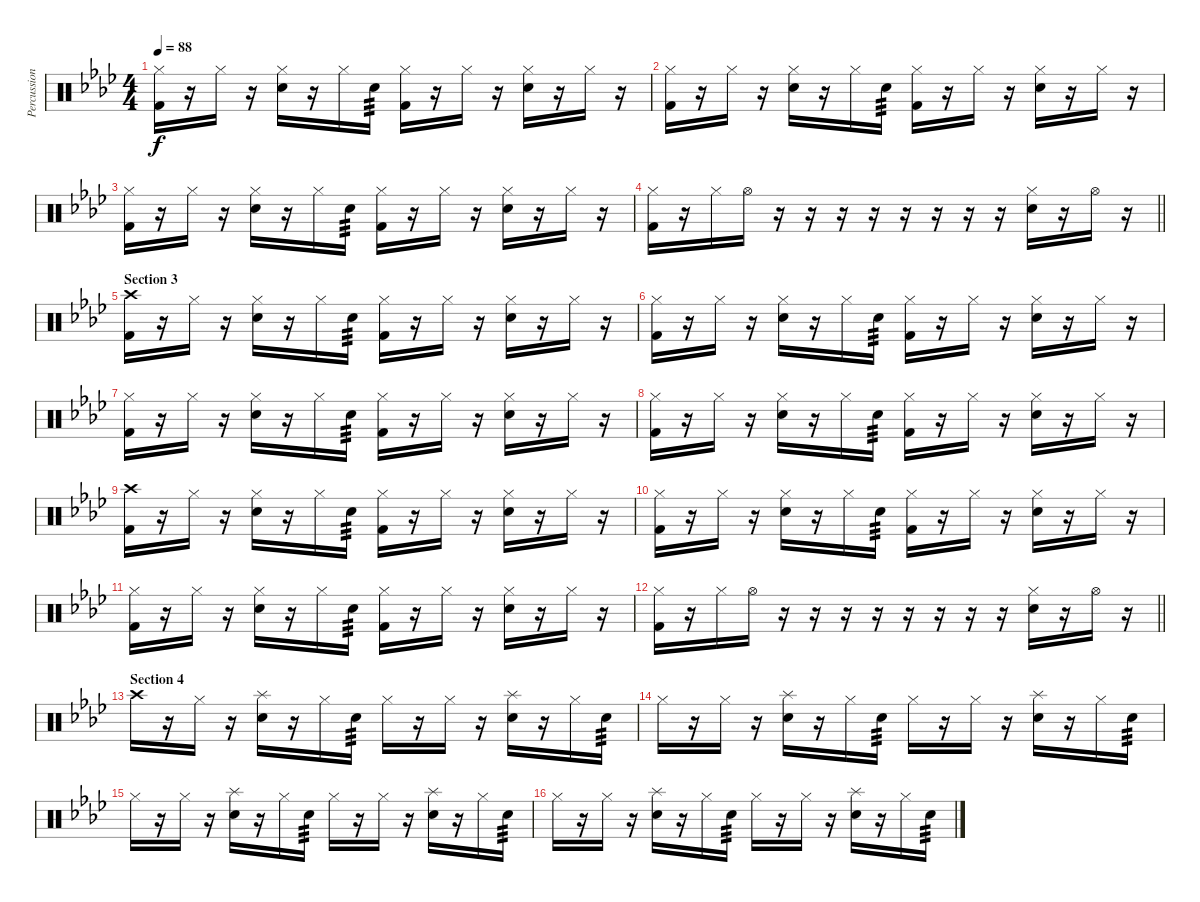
\track ("Percussion" "Percussion") {instrument percussion}
\staff {score}
\articulation defaults
\ts (4 4)
\tempo 88
\clef neutral
\ks fminor
("Hi-Hat (closed)" "Kick (hit) 2").16{dy f} r.16 "Hi-Hat (closed)".16 r.16 ("Hi-Hat (closed)" "Snare (hit) 2").16 r.16 "Hi-Hat (closed)".16 "Snare (hit) 2".16{tp 3} ("Hi-Hat (closed)" "Kick (hit) 2").16 r.16 "Hi-Hat (closed)".16 r.16 ("Hi-Hat (closed)" "Snare (hit) 2").16 r.16 "Hi-Hat (closed)".16 r.16 |
("Hi-Hat (closed)" "Kick (hit) 2").16 r.16 "Hi-Hat (closed)".16 r.16 ("Hi-Hat (closed)" "Snare (hit) 2").16 r.16 "Hi-Hat (closed)".16 "Snare (hit) 2".16{tp 3} ("Hi-Hat (closed)" "Kick (hit) 2").16 r.16 "Hi-Hat (closed)".16 r.16 ("Hi-Hat (closed)" "Snare (hit) 2").16 r.16 "Hi-Hat (closed)".16 r.16 |
("Hi-Hat (closed)" "Kick (hit) 2").16 r.16 "Hi-Hat (closed)".16 r.16 ("Hi-Hat (closed)" "Snare (hit) 2").16 r.16 "Hi-Hat (closed)".16 "Snare (hit) 2".16{tp 3} ("Hi-Hat (closed)" "Kick (hit) 2").16 r.16 "Hi-Hat (closed)".16 r.16 ("Hi-Hat (closed)" "Snare (hit) 2").16 r.16 "Hi-Hat (closed)".16 r.16 |
\barLineRight lightlight
("Hi-Hat (closed)" "Kick (hit) 2").16 r.16 "Hi-Hat (closed)".16 "Hi-Hat (open)".16 r.16{volume 0} r.16 r.16 r.16 r.16 r.16 r.16 r.16{volume 16} ("Hi-Hat (closed)" "Snare (hit) 2").16 r.16 "Hi-Hat (open)".16 r.16 |
\section ("" "Section 3")
("Crash high (hit)" "Kick (hit) 2").16 r.16 "Hi-Hat (closed)".16 r.16 ("Hi-Hat (closed)" "Snare (hit) 2").16 r.16 "Hi-Hat (closed)".16 "Snare (hit) 2".16{tp 3} ("Hi-Hat (closed)" "Kick (hit) 2").16 r.16 "Hi-Hat (closed)".16 r.16 ("Hi-Hat (closed)" "Snare (hit) 2").16 r.16 "Hi-Hat (closed)".16 r.16 |
("Hi-Hat (closed)" "Kick (hit) 2").16 r.16 "Hi-Hat (closed)".16 r.16 ("Hi-Hat (closed)" "Snare (hit) 2").16 r.16 "Hi-Hat (closed)".16 "Snare (hit) 2".16{tp 3} ("Hi-Hat (closed)" "Kick (hit) 2").16 r.16 "Hi-Hat (closed)".16 r.16 ("Hi-Hat (closed)" "Snare (hit) 2").16 r.16 "Hi-Hat (closed)".16 r.16 |
("Hi-Hat (closed)" "Kick (hit) 2").16 r.16 "Hi-Hat (closed)".16 r.16 ("Hi-Hat (closed)" "Snare (hit) 2").16 r.16 "Hi-Hat (closed)".16 "Snare (hit) 2".16{tp 3} ("Hi-Hat (closed)" "Kick (hit) 2").16 r.16 "Hi-Hat (closed)".16 r.16 ("Hi-Hat (closed)" "Snare (hit) 2").16 r.16 "Hi-Hat (closed)".16 r.16 |
("Hi-Hat (closed)" "Kick (hit) 2").16 r.16 "Hi-Hat (closed)".16 r.16 ("Hi-Hat (closed)" "Snare (hit) 2").16 r.16 "Hi-Hat (closed)".16 "Snare (hit) 2".16{tp 3} ("Hi-Hat (closed)" "Kick (hit) 2").16 r.16 "Hi-Hat (closed)".16 r.16 ("Hi-Hat (closed)" "Snare (hit) 2").16 r.16 "Hi-Hat (closed)".16 r.16 |
("Crash high (hit)" "Kick (hit) 2").16 r.16 "Hi-Hat (closed)".16 r.16 ("Hi-Hat (closed)" "Snare (hit) 2").16 r.16 "Hi-Hat (closed)".16 "Snare (hit) 2".16{tp 3} ("Hi-Hat (closed)" "Kick (hit) 2").16 r.16 "Hi-Hat (closed)".16 r.16 ("Hi-Hat (closed)" "Snare (hit) 2").16 r.16 "Hi-Hat (closed)".16 r.16 |
("Hi-Hat (closed)" "Kick (hit) 2").16 r.16 "Hi-Hat (closed)".16 r.16 ("Hi-Hat (closed)" "Snare (hit) 2").16 r.16 "Hi-Hat (closed)".16 "Snare (hit) 2".16{tp 3} ("Hi-Hat (closed)" "Kick (hit) 2").16 r.16 "Hi-Hat (closed)".16 r.16 ("Hi-Hat (closed)" "Snare (hit) 2").16 r.16 "Hi-Hat (closed)".16 r.16 |
("Hi-Hat (closed)" "Kick (hit) 2").16 r.16 "Hi-Hat (closed)".16 r.16 ("Hi-Hat (closed)" "Snare (hit) 2").16 r.16 "Hi-Hat (closed)".16 "Snare (hit) 2".16{tp 3} ("Hi-Hat (closed)" "Kick (hit) 2").16 r.16 "Hi-Hat (closed)".16 r.16 ("Hi-Hat (closed)" "Snare (hit) 2").16 r.16 "Hi-Hat (closed)".16 r.16 |
\barLineRight lightlight
("Hi-Hat (closed)" "Kick (hit) 2").16 r.16 "Hi-Hat (closed)".16 "Hi-Hat (open)".16 r.16{volume 0} r.16 r.16 r.16 r.16 r.16 r.16 r.16{volume 16} ("Hi-Hat (closed)" "Snare (hit) 2").16 r.16 "Hi-Hat (open)".16 r.16 |
\section ("" "Section 4")
"Crash high (hit)".16 r.16 "Hi-Hat (closed)".16 r.16 ("Splash (hit)" "Snare (hit) 2").16 r.16 "Hi-Hat (closed)".16 "Snare (hit) 2".16{tp 3} "Hi-Hat (closed)".16 r.16 "Hi-Hat (closed)".16 r.16 ("Splash (hit)" "Snare (hit) 2").16 r.16 "Hi-Hat (closed)".16 "Snare (hit) 2".16{tp 3} |
"Hi-Hat (closed)".16 r.16 "Hi-Hat (closed)".16 r.16 ("Splash (hit)" "Snare (hit) 2").16 r.16 "Hi-Hat (closed)".16 "Snare (hit) 2".16{tp 3} "Hi-Hat (closed)".16 r.16 "Hi-Hat (closed)".16 r.16 ("Splash (hit)" "Snare (hit) 2").16 r.16 "Hi-Hat (closed)".16 "Snare (hit) 2".16{tp 3} |
"Hi-Hat (closed)".16 r.16 "Hi-Hat (closed)".16 r.16 ("Splash (hit)" "Snare (hit) 2").16 r.16 "Hi-Hat (closed)".16 "Snare (hit) 2".16{tp 3} "Hi-Hat (closed)".16 r.16 "Hi-Hat (closed)".16 r.16 ("Splash (hit)" "Snare (hit) 2").16 r.16 "Hi-Hat (closed)".16 "Snare (hit) 2".16{tp 3} |
"Hi-Hat (closed)".16 r.16 "Hi-Hat (closed)".16 r.16 ("Splash (hit)" "Snare (hit) 2").16 r.16 "Hi-Hat (closed)".16 "Snare (hit) 2".16{tp 3} "Hi-Hat (closed)".16 r.16 "Hi-Hat (closed)".16 r.16 ("Splash (hit)" "Snare (hit) 2").16 r.16 "Hi-Hat (closed)".16 "Snare (hit) 2".16{tp 3}
